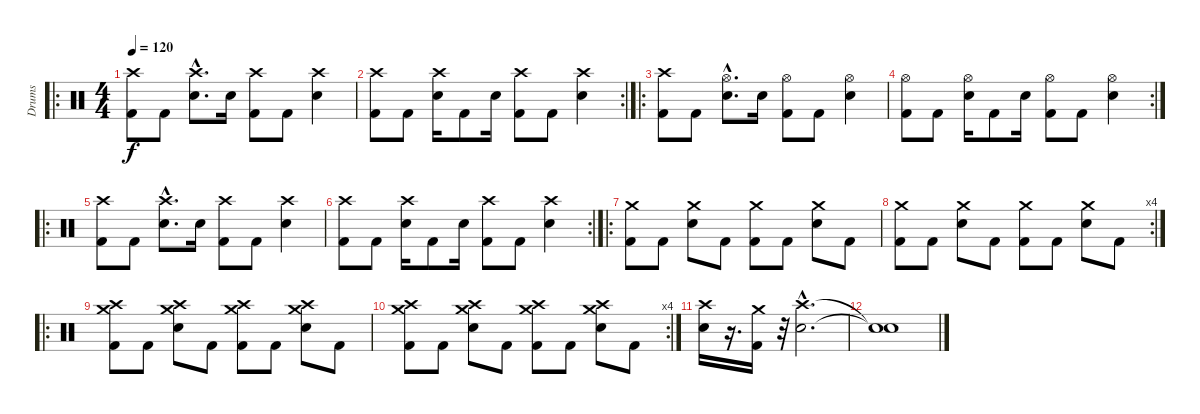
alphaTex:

\track ("Drums" "Drums") {instrument percussion}
\staff {score}
\articulation defaults
\ro
\ts (4 4)
\tempo 120
\clef neutral
\ks c
("Kick (hit) 2" "Crash high (hit)").8{dy f} "Kick (hit) 2".8 ("Electric Snare (hit)"{hac} "Crash high (hit)"{hac}).8{d} "Electric Snare (hit)".16 ("Kick (hit) 2" "Crash high (hit)").8 "Kick (hit) 2".8 ("Electric Snare (hit)" "Crash high (hit)").4 |
\rc 2
("Kick (hit) 2" "Crash high (hit)").8 "Kick (hit) 2".8 ("Electric Snare (hit)" "Crash high (hit)").16 "Kick (hit) 2".8 "Electric Snare (hit)".16 ("Kick (hit) 2" "Crash high (hit)").8 "Kick (hit) 2".8 ("Electric Snare (hit)" "Crash high (hit)").4 |
\ro
("Kick (hit) 2" "Crash high (hit)").8 "Kick (hit) 2".8 ("Electric Snare (hit)"{hac} "Hi-Hat (open)"{hac}).8{d} "Electric Snare (hit)".16 ("Kick (hit) 2" "Hi-Hat (open)").8 "Kick (hit) 2".8 ("Electric Snare (hit)" "Hi-Hat (open)").4 |
\rc 2
("Kick (hit) 2" "Hi-Hat (open)").8 "Kick (hit) 2".8 ("Electric Snare (hit)" "Hi-Hat (open)").16 "Kick (hit) 2".8 "Electric Snare (hit)".16 ("Kick (hit) 2" "Hi-Hat (open)").8 "Kick (hit) 2".8 ("Electric Snare (hit)" "Hi-Hat (open)").4 |
\ro
("Kick (hit) 2" "Crash high (hit)").8 "Kick (hit) 2".8 ("Electric Snare (hit)"{hac} "Crash high (hit)"{hac}).8{d} "Electric Snare (hit)".16 ("Kick (hit) 2" "Crash high (hit)").8 "Kick (hit) 2".8 ("Electric Snare (hit)" "Crash high (hit)").4 |
\rc 2
("Kick (hit) 2" "Crash high (hit)").8 "Kick (hit) 2".8 ("Electric Snare (hit)" "Crash high (hit)").16 "Kick (hit) 2".8 "Electric Snare (hit)".16 ("Kick (hit) 2" "Crash high (hit)").8 "Kick (hit) 2".8 ("Electric Snare (hit)" "Crash high (hit)").4 |
\ro
("Crash medium (hit)" "Kick (hit) 2").8 "Kick (hit) 2".8 ("Crash medium (hit)" "Electric Snare (hit)").8 "Kick (hit) 2".8 ("Crash medium (hit)" "Kick (hit) 2").8 "Kick (hit) 2".8 ("Crash medium (hit)" "Electric Snare (hit)").8 "Kick (hit) 2".8 |
\rc 4
("Crash medium (hit)" "Kick (hit) 2").8 "Kick (hit) 2".8 ("Crash medium (hit)" "Electric Snare (hit)").8 "Kick (hit) 2".8 ("Crash medium (hit)" "Kick (hit) 2").8 "Kick (hit) 2".8 ("Crash medium (hit)" "Electric Snare (hit)").8 "Kick (hit) 2".8 |
\ro
("Crash medium (hit)" "Kick (hit) 2" "Crash high (hit)").8 "Kick (hit) 2".8 ("Crash medium (hit)" "Electric Snare (hit)" "Crash high (hit)").8 "Kick (hit) 2".8 ("Crash medium (hit)" "Kick (hit) 2" "Crash high (hit)").8 "Kick (hit) 2".8 ("Crash medium (hit)" "Electric Snare (hit)" "Crash high (hit)").8 "Kick (hit) 2".8 |
\rc 4
("Crash medium (hit)" "Kick (hit) 2" "Crash high (hit)").8 "Kick (hit) 2".8 ("Crash medium (hit)" "Electric Snare (hit)" "Crash high (hit)").8 "Kick (hit) 2".8 ("Crash medium (hit)" "Kick (hit) 2" "Crash high (hit)").8 "Kick (hit) 2".8 ("Crash medium (hit)" "Electric Snare (hit)" "Crash high (hit)").8 "Kick (hit) 2".8 |
("Crash high (hit)" "Electric Snare (hit)").16 r.16{d} ("Kick (hit) 2" "Crash medium (hit)").16 r.32 ("Crash high (hit)"{hac} "Electric Snare (hit)"{hac}).2{d} |
("Snare (hit)"{t} "Snare (hit)"{t}).1
